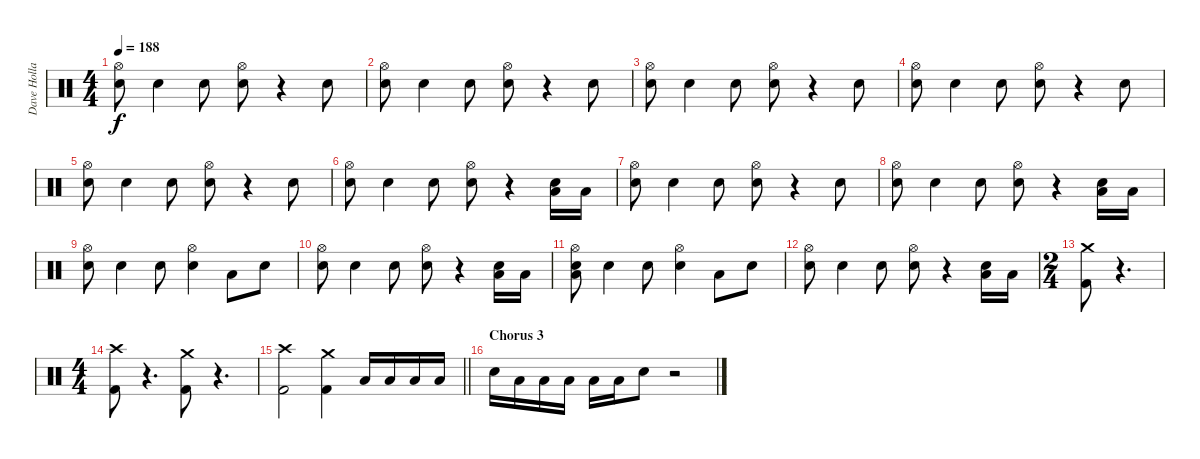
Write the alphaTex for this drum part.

\track ("Dave Holland" "Dave Holla") {instrument percussion}
\staff {score}
\articulation defaults
\ts (4 4)
\tempo 188
\clef neutral
\ks c
("Hi-Hat (open)" "Snare (hit) 2").8{dy f} "Snare (hit) 2".4 "Snare (hit) 2".8 ("Hi-Hat (open)" "Metronome (bell)").8 r.4 "Snare (hit) 2".8 |
("Hi-Hat (open)" "Snare (hit) 2").8 "Snare (hit) 2".4 "Snare (hit) 2".8 ("Hi-Hat (open)" "Metronome (bell)").8 r.4 "Snare (hit) 2".8 |
("Hi-Hat (open)" "Snare (hit) 2").8 "Snare (hit) 2".4 "Snare (hit) 2".8 ("Hi-Hat (open)" "Metronome (bell)").8 r.4 "Snare (hit) 2".8 |
("Hi-Hat (open)" "Snare (hit) 2").8 "Snare (hit) 2".4 "Snare (hit) 2".8 ("Hi-Hat (open)" "Metronome (bell)").8 r.4 "Snare (hit) 2".8 |
("Hi-Hat (open)" "Snare (hit) 2").8 "Snare (hit) 2".4 "Snare (hit) 2".8 ("Hi-Hat (open)" "Metronome (bell)").8 r.4 "Snare (hit) 2".8 |
("Hi-Hat (open)" "Snare (hit) 2").8 "Snare (hit) 2".4 "Snare (hit) 2".8 ("Hi-Hat (open)" "Metronome (bell)").8 r.4 ("Low Tom (hit)" "Snare (hit) 2").16 "Low Tom (hit)".16 |
("Hi-Hat (open)" "Snare (hit) 2").8 "Snare (hit) 2".4 "Snare (hit) 2".8 ("Hi-Hat (open)" "Metronome (bell)").8 r.4 "Snare (hit) 2".8 |
("Hi-Hat (open)" "Snare (hit) 2").8 "Snare (hit) 2".4 "Snare (hit) 2".8 ("Hi-Hat (open)" "Metronome (bell)").8 r.4 ("Low Tom (hit)" "Snare (hit) 2").16 "Low Tom (hit)".16 |
("Hi-Hat (open)" "Snare (hit) 2").8 "Snare (hit) 2".4 "Snare (hit) 2".8 ("Hi-Hat (open)" "Metronome (bell)").4 "Low Tom (hit)".8 "Snare (hit) 2".8 |
("Hi-Hat (open)" "Snare (hit) 2").8 "Snare (hit) 2".4 "Snare (hit) 2".8 ("Hi-Hat (open)" "Metronome (bell)").8 r.4 ("Low Tom (hit)" "Snare (hit) 2").16 "Low Tom (hit)".16 |
("Low Tom (hit)" "Hi-Hat (open)" "Snare (hit) 2").8 "Snare (hit) 2".4 "Snare (hit) 2".8 ("Hi-Hat (open)" "Metronome (bell)").4 "Low Tom (hit)".8 "Snare (hit) 2".8 |
("Hi-Hat (open)" "Snare (hit) 2").8 "Snare (hit) 2".4 "Snare (hit) 2".8 ("Hi-Hat (open)" "Metronome (bell)").8 r.4 ("Low Tom (hit)" "Snare (hit) 2").16 "Low Tom (hit)".16 |
\ts (2 4)
("Kick (hit) 2" "Crash medium (hit)").8 r.4{d} |
\ts (4 4)
("Kick (hit) 2" "Crash high (hit)").8 r.4{d} ("Kick (hit) 2" "Crash medium (hit)").8 r.4{d} |
\barLineRight lightlight
("Kick (hit) 2" "Crash high (hit)").2 ("Crash medium (hit)" "Kick (hit) 2").4 "Low Tom (hit)".16 "Low Tom (hit)".16 "Low Tom (hit)".16 "Low Tom (hit)".16 |
\section ("" "Chorus 3")
"Snare (hit) 2".16 "Low Tom (hit)".16 "Low Tom (hit)".16 "Low Tom (hit)".16 "Low Tom (hit)".16 "Low Tom (hit)".16 "Snare (hit) 2".8 r.2
